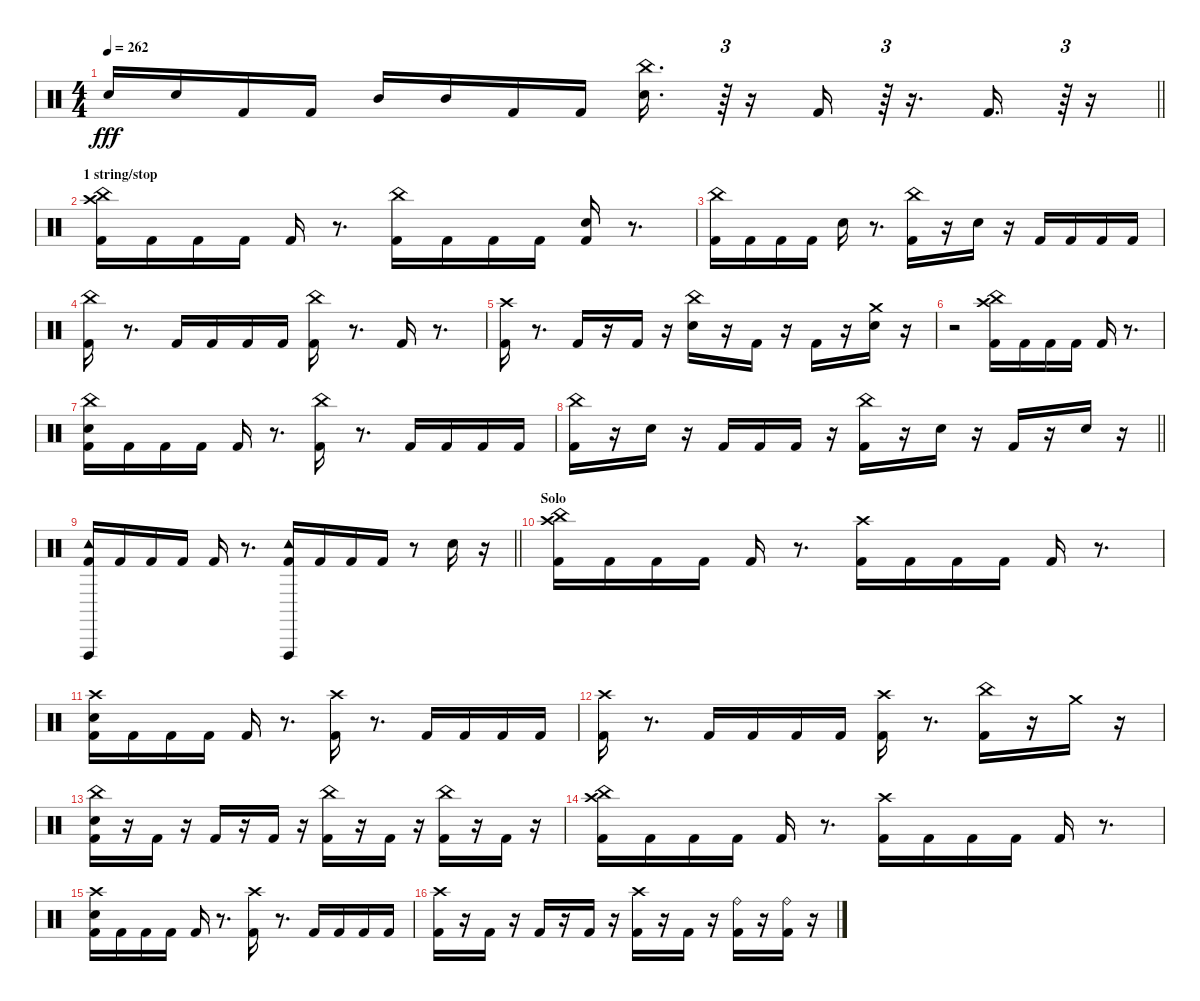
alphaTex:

\track "" {instrument percussion}
\staff {score}
\articulation defaults
\ts (4 4)
\tempo 262
\clef neutral
\barLineRight lightlight
\ks c "Snare (hit) 2".16{dy fff} "Snare (hit) 2".16 "Kick (hit) 2".16 "Kick (hit) 2".16 "Mid Tom (hit)".16 "Mid Tom (hit)".16 "Kick (hit) 2".16 "Kick (hit) 2".16
("Electric Snare (hit)" "China (hit)").16{d} r.64{tu (3 2)} r.16 "Kick (hit) 2".16 r.64{tu (3 2)} r.16{d} "Kick (hit) 2".16{d} r.64{tu (3 2)} r.16 |
\section ("" "1 string/stop")
("Kick (hit) 2" "Crash high (hit)" "China (hit)").16 "Kick (hit) 2".16 "Kick (hit) 2".16 "Kick (hit) 2".16 "Kick (hit) 2".16 r.8{d} ("Kick (hit) 2" "China (hit)").16 "Kick (hit) 2".16 "Kick (hit) 2".16 "Kick (hit) 2".16 ("Kick (hit) 2" "Snare (hit) 2").16 r.8{d} |
("Kick (hit) 2" "China (hit)").16 "Kick (hit) 2".16 "Kick (hit) 2".16 "Kick (hit) 2".16 "Snare (hit) 2".16 r.8{d} ("Kick (hit) 2" "China (hit)").16 r.16 "Snare (hit) 2".16 r.16 "Kick (hit) 2".16 "Kick (hit) 2".16 "Kick (hit) 2".16 "Kick (hit) 2".16 |
("Kick (hit) 2" "China (hit)").16 r.8{d} "Kick (hit) 2".16 "Kick (hit) 2".16 "Kick (hit) 2".16 "Kick (hit) 2".16 ("Kick (hit) 2" "China (hit)").16 r.8{d} "Kick (hit) 2".16 r.8{d} |
("Kick (hit) 2" "Crash high (hit)").16 r.8{d} "Kick (hit) 2".16 r.16 "Kick (hit) 2".16 r.16 ("Snare (hit) 2" "China (hit)").16 r.16 "Kick (hit) 2".16 r.16 "Kick (hit) 2".16 r.16 ("Snare (hit) 2" "Crash medium (hit)").16 r.16 |
r.2 ("Kick (hit) 2" "Crash high (hit)" "China (hit)").16 "Kick (hit) 2".16 "Kick (hit) 2".16 "Kick (hit) 2".16 "Kick (hit) 2".16 r.8{d} |
("Kick (hit) 2" "Snare (hit) 2" "China (hit)").16 "Kick (hit) 2".16 "Kick (hit) 2".16 "Kick (hit) 2".16 "Kick (hit) 2".16 r.8{d} ("Kick (hit) 2" "China (hit)").16 r.8{d} "Kick (hit) 2".16 "Kick (hit) 2".16 "Kick (hit) 2".16 "Kick (hit) 2".16 |
\barLineRight lightlight
("Kick (hit) 2" "China (hit)").16 r.16 "Snare (hit) 2".16 r.16 "Kick (hit) 2".16 "Kick (hit) 2".16 "Kick (hit) 2".16 r.16 ("Kick (hit) 2" "China (hit)").16 r.16 "Snare (hit) 2".16 r.16 "Kick (hit) 2".16 r.16 "Snare (hit) 2".16 r.16 |
\section ("" "")
\barLineRight lightlight
("Kick (hit) 2" "Tambourine (hit)" "Vibraslap (hit)").16 "Kick (hit) 2".16 "Kick (hit) 2".16 "Kick (hit) 2".16 "Kick (hit) 2".16 r.8{d} ("Kick (hit) 2" "Tambourine (hit)" "Vibraslap (hit)").16 "Kick (hit) 2".16 "Kick (hit) 2".16 "Kick (hit) 2".16 r.8 "Snare (hit) 2".16 r.16 |
\section ("" "Solo")
("Kick (hit) 2" "Crash high (hit)" "China (hit)").16 "Kick (hit) 2".16 "Kick (hit) 2".16 "Kick (hit) 2".16 "Kick (hit) 2".16 r.8{d} ("Kick (hit) 2" "Crash high (hit)").16 "Kick (hit) 2".16 "Kick (hit) 2".16 "Kick (hit) 2".16 "Kick (hit) 2".16 r.8{d} |
("Kick (hit) 2" "Snare (hit) 2" "Crash high (hit)").16 "Kick (hit) 2".16 "Kick (hit) 2".16 "Kick (hit) 2".16 "Kick (hit) 2".16 r.8{d} ("Kick (hit) 2" "Crash high (hit)").16 r.8{d} "Kick (hit) 2".16 "Kick (hit) 2".16 "Kick (hit) 2".16 "Kick (hit) 2".16 |
("Kick (hit) 2" "Crash high (hit)").16 r.8{d} "Kick (hit) 2".16 "Kick (hit) 2".16 "Kick (hit) 2".16 "Kick (hit) 2".16 ("Kick (hit) 2" "Crash high (hit)").16 r.8{d} ("Kick (hit) 2" "China (hit)").16 r.16 "Crash medium (hit)".16 r.16 |
("Kick (hit) 2" "Snare (hit) 2" "China (hit)").16 r.16 "Kick (hit) 2".16 r.16 "Kick (hit) 2".16 r.16 "Kick (hit) 2".16 r.16 ("Kick (hit) 2" "China (hit)").16 r.16 "Kick (hit) 2".16 r.16 ("Kick (hit) 2" "China (hit)").16 r.16 "Kick (hit) 2".16 r.16 |
("Kick (hit) 2" "Crash high (hit)" "China (hit)").16 "Kick (hit) 2".16 "Kick (hit) 2".16 "Kick (hit) 2".16 "Kick (hit) 2".16 r.8{d} ("Kick (hit) 2" "Crash high (hit)").16 "Kick (hit) 2".16 "Kick (hit) 2".16 "Kick (hit) 2".16 "Kick (hit) 2".16 r.8{d} |
("Kick (hit) 2" "Snare (hit) 2" "Crash high (hit)").16 "Kick (hit) 2".16 "Kick (hit) 2".16 "Kick (hit) 2".16 "Kick (hit) 2".16 r.8{d} ("Kick (hit) 2" "Crash high (hit)").16 r.8{d} "Kick (hit) 2".16 "Kick (hit) 2".16 "Kick (hit) 2".16 "Kick (hit) 2".16 |
("Kick (hit) 2" "Crash high (hit)").16 r.16 "Kick (hit) 2".16 r.16 "Kick (hit) 2".16 r.16 "Kick (hit) 2".16 r.16 ("Kick (hit) 2" "Crash high (hit)").16 r.16 "Kick (hit) 2".16 r.16 ("Kick (hit) 2" "Ride (bell)").16 r.16 ("Kick (hit) 2" "Ride (bell)").16 r.16
